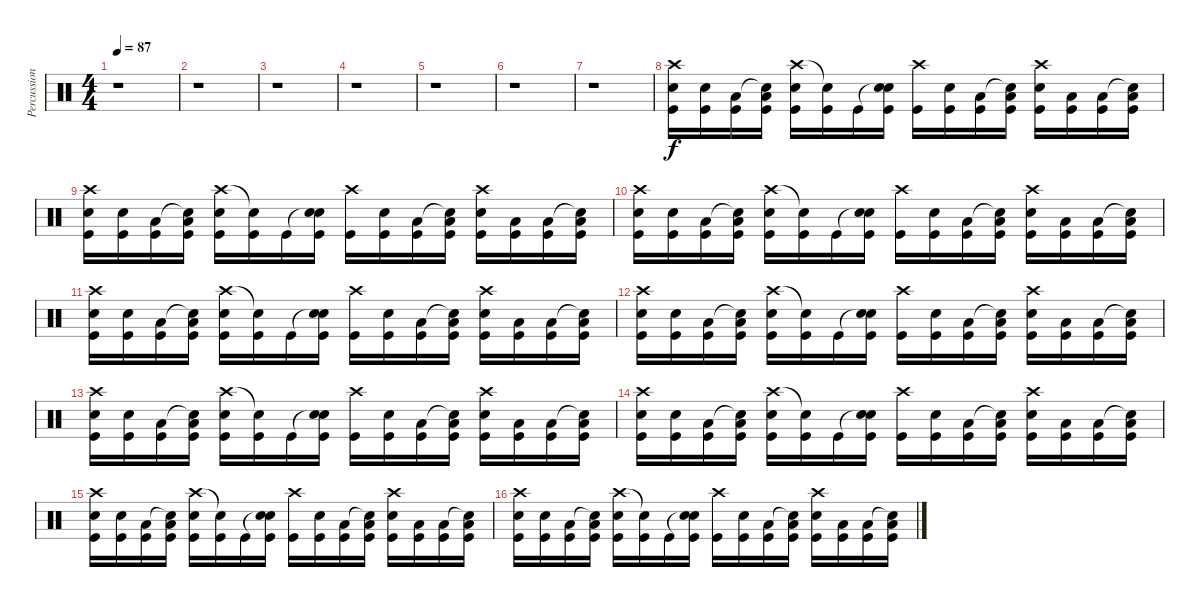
\track ("Percussions" "Percussion") {instrument percussion}
\staff {score}
\articulation defaults
\ts (4 4)
\tempo 87
\clef neutral
\ks c
r.1{dy f} |
r.1 |
r.1 |
r.1 |
r.1 |
r.1 |
r.1 |
("Crash high (hit)" "Snare (hit) 2" "Kick (hit)").16 ("Snare (hit) 2" "Kick (hit)").16 ("Low Floor Tom (hit)" "Kick (hit)").16 ("Snare (hit)"{t} "Low Floor Tom (hit)" "Kick (hit)").16 ("Crash high (hit)" "Snare (hit) 2" "Kick (hit)").16 ("Snare (hit) 2"{t} "Kick (hit)").16 "Kick (hit)".16 ("Snare (hit)"{t} "Snare (hit) 2" "Kick (hit)").16 ("Crash high (hit)" "Kick (hit)").16 ("Snare (hit) 2" "Kick (hit)").16 ("Low Floor Tom (hit)" "Kick (hit)").16 ("Snare (hit)"{t} "Low Floor Tom (hit)" "Kick (hit)").16 ("Crash high (hit)" "Snare (hit) 2" "Kick (hit)").16 ("Low Floor Tom (hit)" "Kick (hit)").16 ("Low Floor Tom (hit)" "Kick (hit)").16 ("Snare (hit)"{t} "Low Floor Tom (hit)" "Kick (hit)").16 |
("Crash high (hit)" "Snare (hit) 2" "Kick (hit)").16 ("Snare (hit) 2" "Kick (hit)").16 ("Low Floor Tom (hit)" "Kick (hit)").16 ("Snare (hit)"{t} "Low Floor Tom (hit)" "Kick (hit)").16 ("Crash high (hit)" "Snare (hit) 2" "Kick (hit)").16 ("Snare (hit) 2"{t} "Kick (hit)").16 "Kick (hit)".16 ("Snare (hit)"{t} "Snare (hit) 2" "Kick (hit)").16 ("Crash high (hit)" "Kick (hit)").16 ("Snare (hit) 2" "Kick (hit)").16 ("Low Floor Tom (hit)" "Kick (hit)").16 ("Snare (hit)"{t} "Low Floor Tom (hit)" "Kick (hit)").16 ("Crash high (hit)" "Snare (hit) 2" "Kick (hit)").16 ("Low Floor Tom (hit)" "Kick (hit)").16 ("Low Floor Tom (hit)" "Kick (hit)").16 ("Snare (hit)"{t} "Low Floor Tom (hit)" "Kick (hit)").16 |
("Crash high (hit)" "Snare (hit) 2" "Kick (hit)").16 ("Snare (hit) 2" "Kick (hit)").16 ("Low Floor Tom (hit)" "Kick (hit)").16 ("Snare (hit)"{t} "Low Floor Tom (hit)" "Kick (hit)").16 ("Crash high (hit)" "Snare (hit) 2" "Kick (hit)").16 ("Snare (hit) 2"{t} "Kick (hit)").16 "Kick (hit)".16 ("Snare (hit)"{t} "Snare (hit) 2" "Kick (hit)").16 ("Crash high (hit)" "Kick (hit)").16 ("Snare (hit) 2" "Kick (hit)").16 ("Low Floor Tom (hit)" "Kick (hit)").16 ("Snare (hit)"{t} "Low Floor Tom (hit)" "Kick (hit)").16 ("Crash high (hit)" "Snare (hit) 2" "Kick (hit)").16 ("Low Floor Tom (hit)" "Kick (hit)").16 ("Low Floor Tom (hit)" "Kick (hit)").16 ("Snare (hit)"{t} "Low Floor Tom (hit)" "Kick (hit)").16 |
("Crash high (hit)" "Snare (hit) 2" "Kick (hit)").16 ("Snare (hit) 2" "Kick (hit)").16 ("Low Floor Tom (hit)" "Kick (hit)").16 ("Snare (hit)"{t} "Low Floor Tom (hit)" "Kick (hit)").16 ("Crash high (hit)" "Snare (hit) 2" "Kick (hit)").16 ("Snare (hit) 2"{t} "Kick (hit)").16 "Kick (hit)".16 ("Snare (hit)"{t} "Snare (hit) 2" "Kick (hit)").16 ("Crash high (hit)" "Kick (hit)").16 ("Snare (hit) 2" "Kick (hit)").16 ("Low Floor Tom (hit)" "Kick (hit)").16 ("Snare (hit)"{t} "Low Floor Tom (hit)" "Kick (hit)").16 ("Crash high (hit)" "Snare (hit) 2" "Kick (hit)").16 ("Low Floor Tom (hit)" "Kick (hit)").16 ("Low Floor Tom (hit)" "Kick (hit)").16 ("Snare (hit)"{t} "Low Floor Tom (hit)" "Kick (hit)").16 |
("Crash high (hit)" "Snare (hit) 2" "Kick (hit)").16 ("Snare (hit) 2" "Kick (hit)").16 ("Low Floor Tom (hit)" "Kick (hit)").16 ("Snare (hit)"{t} "Low Floor Tom (hit)" "Kick (hit)").16 ("Crash high (hit)" "Snare (hit) 2" "Kick (hit)").16 ("Snare (hit) 2"{t} "Kick (hit)").16 "Kick (hit)".16 ("Snare (hit)"{t} "Snare (hit) 2" "Kick (hit)").16 ("Crash high (hit)" "Kick (hit)").16 ("Snare (hit) 2" "Kick (hit)").16 ("Low Floor Tom (hit)" "Kick (hit)").16 ("Snare (hit)"{t} "Low Floor Tom (hit)" "Kick (hit)").16 ("Crash high (hit)" "Snare (hit) 2" "Kick (hit)").16 ("Low Floor Tom (hit)" "Kick (hit)").16 ("Low Floor Tom (hit)" "Kick (hit)").16 ("Snare (hit)"{t} "Low Floor Tom (hit)" "Kick (hit)").16 |
("Crash high (hit)" "Snare (hit) 2" "Kick (hit)").16 ("Snare (hit) 2" "Kick (hit)").16 ("Low Floor Tom (hit)" "Kick (hit)").16 ("Snare (hit)"{t} "Low Floor Tom (hit)" "Kick (hit)").16 ("Crash high (hit)" "Snare (hit) 2" "Kick (hit)").16 ("Snare (hit) 2"{t} "Kick (hit)").16 "Kick (hit)".16 ("Snare (hit)"{t} "Snare (hit) 2" "Kick (hit)").16 ("Crash high (hit)" "Kick (hit)").16 ("Snare (hit) 2" "Kick (hit)").16 ("Low Floor Tom (hit)" "Kick (hit)").16 ("Snare (hit)"{t} "Low Floor Tom (hit)" "Kick (hit)").16 ("Crash high (hit)" "Snare (hit) 2" "Kick (hit)").16 ("Low Floor Tom (hit)" "Kick (hit)").16 ("Low Floor Tom (hit)" "Kick (hit)").16 ("Snare (hit)"{t} "Low Floor Tom (hit)" "Kick (hit)").16 |
("Crash high (hit)" "Snare (hit) 2" "Kick (hit)").16 ("Snare (hit) 2" "Kick (hit)").16 ("Low Floor Tom (hit)" "Kick (hit)").16 ("Snare (hit)"{t} "Low Floor Tom (hit)" "Kick (hit)").16 ("Crash high (hit)" "Snare (hit) 2" "Kick (hit)").16 ("Snare (hit) 2"{t} "Kick (hit)").16 "Kick (hit)".16 ("Snare (hit)"{t} "Snare (hit) 2" "Kick (hit)").16 ("Crash high (hit)" "Kick (hit)").16 ("Snare (hit) 2" "Kick (hit)").16 ("Low Floor Tom (hit)" "Kick (hit)").16 ("Snare (hit)"{t} "Low Floor Tom (hit)" "Kick (hit)").16 ("Crash high (hit)" "Snare (hit) 2" "Kick (hit)").16 ("Low Floor Tom (hit)" "Kick (hit)").16 ("Low Floor Tom (hit)" "Kick (hit)").16 ("Snare (hit)"{t} "Low Floor Tom (hit)" "Kick (hit)").16 |
("Crash high (hit)" "Snare (hit) 2" "Kick (hit)").16 ("Snare (hit) 2" "Kick (hit)").16 ("Low Floor Tom (hit)" "Kick (hit)").16 ("Snare (hit)"{t} "Low Floor Tom (hit)" "Kick (hit)").16 ("Crash high (hit)" "Snare (hit) 2" "Kick (hit)").16 ("Snare (hit) 2"{t} "Kick (hit)").16 "Kick (hit)".16 ("Snare (hit)"{t} "Snare (hit) 2" "Kick (hit)").16 ("Crash high (hit)" "Kick (hit)").16 ("Snare (hit) 2" "Kick (hit)").16 ("Low Floor Tom (hit)" "Kick (hit)").16 ("Snare (hit)"{t} "Low Floor Tom (hit)" "Kick (hit)").16 ("Crash high (hit)" "Snare (hit) 2" "Kick (hit)").16 ("Low Floor Tom (hit)" "Kick (hit)").16 ("Low Floor Tom (hit)" "Kick (hit)").16 ("Snare (hit)"{t} "Low Floor Tom (hit)" "Kick (hit)").16 |
("Crash high (hit)" "Snare (hit) 2" "Kick (hit)").16 ("Snare (hit) 2" "Kick (hit)").16 ("Low Floor Tom (hit)" "Kick (hit)").16 ("Snare (hit)"{t} "Low Floor Tom (hit)" "Kick (hit)").16 ("Crash high (hit)" "Snare (hit) 2" "Kick (hit)").16 ("Snare (hit) 2"{t} "Kick (hit)").16 "Kick (hit)".16 ("Snare (hit)"{t} "Snare (hit) 2" "Kick (hit)").16 ("Crash high (hit)" "Kick (hit)").16 ("Snare (hit) 2" "Kick (hit)").16 ("Low Floor Tom (hit)" "Kick (hit)").16 ("Snare (hit)"{t} "Low Floor Tom (hit)" "Kick (hit)").16 ("Crash high (hit)" "Snare (hit) 2" "Kick (hit)").16 ("Low Floor Tom (hit)" "Kick (hit)").16 ("Low Floor Tom (hit)" "Kick (hit)").16 ("Snare (hit)"{t} "Low Floor Tom (hit)" "Kick (hit)").16
